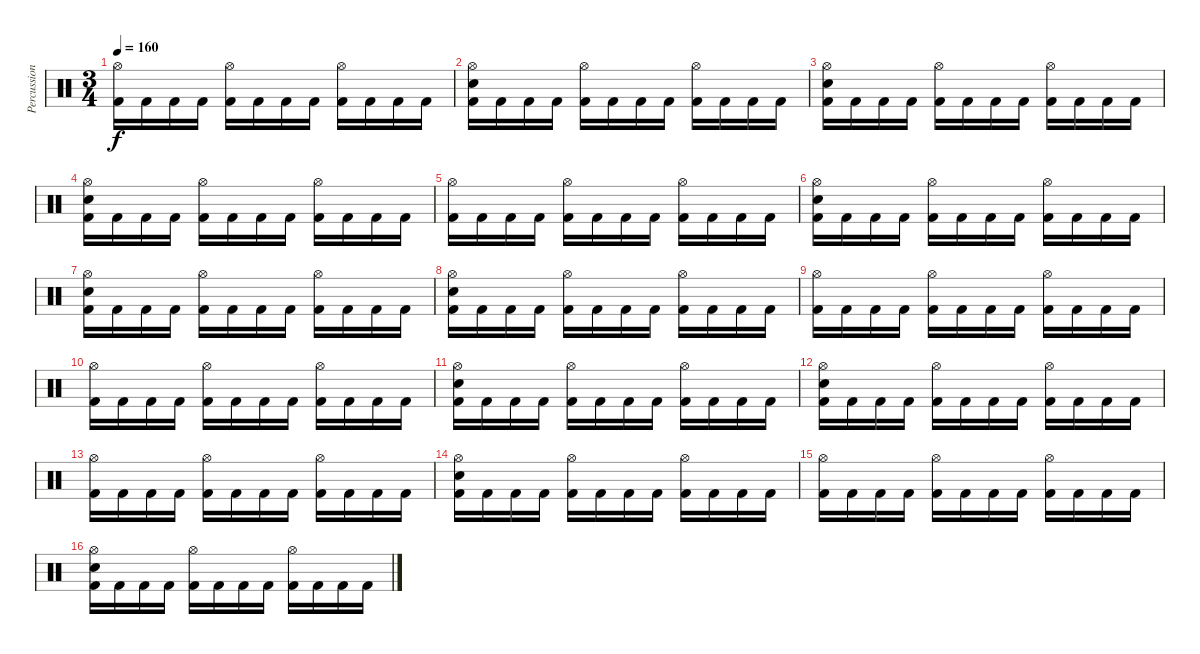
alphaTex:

\track ("Percussion" "Percussion") {instrument percussion}
\staff {score}
\articulation defaults
\ts (3 4)
\tempo 160
\clef neutral
\ks c
("Hi-Hat (open)" "Kick (hit) 2").16{dy f} "Kick (hit) 2".16 "Kick (hit) 2".16 "Kick (hit) 2".16 ("Hi-Hat (open)" "Kick (hit) 2").16 "Kick (hit) 2".16 "Kick (hit) 2".16 "Kick (hit) 2".16 ("Hi-Hat (open)" "Kick (hit) 2").16 "Kick (hit) 2".16 "Kick (hit) 2".16 "Kick (hit) 2".16 |
("Hi-Hat (open)" "Electric Snare (hit)" "Kick (hit) 2").16 "Kick (hit) 2".16 "Kick (hit) 2".16 "Kick (hit) 2".16 ("Hi-Hat (open)" "Kick (hit) 2").16 "Kick (hit) 2".16 "Kick (hit) 2".16 "Kick (hit) 2".16 ("Hi-Hat (open)" "Kick (hit) 2").16 "Kick (hit) 2".16 "Kick (hit) 2".16 "Kick (hit) 2".16 |
("Hi-Hat (open)" "Electric Snare (hit)" "Kick (hit) 2").16 "Kick (hit) 2".16 "Kick (hit) 2".16 "Kick (hit) 2".16 ("Hi-Hat (open)" "Kick (hit) 2").16 "Kick (hit) 2".16 "Kick (hit) 2".16 "Kick (hit) 2".16 ("Hi-Hat (open)" "Kick (hit) 2").16 "Kick (hit) 2".16 "Kick (hit) 2".16 "Kick (hit) 2".16 |
("Hi-Hat (open)" "Electric Snare (hit)" "Kick (hit) 2").16 "Kick (hit) 2".16 "Kick (hit) 2".16 "Kick (hit) 2".16 ("Hi-Hat (open)" "Kick (hit) 2").16 "Kick (hit) 2".16 "Kick (hit) 2".16 "Kick (hit) 2".16 ("Hi-Hat (open)" "Kick (hit) 2").16 "Kick (hit) 2".16 "Kick (hit) 2".16 "Kick (hit) 2".16 |
("Hi-Hat (open)" "Kick (hit) 2").16 "Kick (hit) 2".16 "Kick (hit) 2".16 "Kick (hit) 2".16 ("Hi-Hat (open)" "Kick (hit) 2").16 "Kick (hit) 2".16 "Kick (hit) 2".16 "Kick (hit) 2".16 ("Hi-Hat (open)" "Kick (hit) 2").16 "Kick (hit) 2".16 "Kick (hit) 2".16 "Kick (hit) 2".16 |
("Hi-Hat (open)" "Electric Snare (hit)" "Kick (hit) 2").16 "Kick (hit) 2".16 "Kick (hit) 2".16 "Kick (hit) 2".16 ("Hi-Hat (open)" "Kick (hit) 2").16 "Kick (hit) 2".16 "Kick (hit) 2".16 "Kick (hit) 2".16 ("Hi-Hat (open)" "Kick (hit) 2").16 "Kick (hit) 2".16 "Kick (hit) 2".16 "Kick (hit) 2".16 |
("Hi-Hat (open)" "Electric Snare (hit)" "Kick (hit) 2").16 "Kick (hit) 2".16 "Kick (hit) 2".16 "Kick (hit) 2".16 ("Hi-Hat (open)" "Kick (hit) 2").16 "Kick (hit) 2".16 "Kick (hit) 2".16 "Kick (hit) 2".16 ("Hi-Hat (open)" "Kick (hit) 2").16 "Kick (hit) 2".16 "Kick (hit) 2".16 "Kick (hit) 2".16 |
("Hi-Hat (open)" "Electric Snare (hit)" "Kick (hit) 2").16 "Kick (hit) 2".16 "Kick (hit) 2".16 "Kick (hit) 2".16 ("Hi-Hat (open)" "Kick (hit) 2").16 "Kick (hit) 2".16 "Kick (hit) 2".16 "Kick (hit) 2".16 ("Hi-Hat (open)" "Kick (hit) 2").16 "Kick (hit) 2".16 "Kick (hit) 2".16 "Kick (hit) 2".16 |
("Hi-Hat (open)" "Kick (hit) 2").16 "Kick (hit) 2".16 "Kick (hit) 2".16 "Kick (hit) 2".16 ("Hi-Hat (open)" "Kick (hit) 2").16 "Kick (hit) 2".16 "Kick (hit) 2".16 "Kick (hit) 2".16 ("Hi-Hat (open)" "Kick (hit) 2").16 "Kick (hit) 2".16 "Kick (hit) 2".16 "Kick (hit) 2".16 |
("Hi-Hat (open)" "Kick (hit) 2").16 "Kick (hit) 2".16 "Kick (hit) 2".16 "Kick (hit) 2".16 ("Hi-Hat (open)" "Kick (hit) 2").16 "Kick (hit) 2".16 "Kick (hit) 2".16 "Kick (hit) 2".16 ("Hi-Hat (open)" "Kick (hit) 2").16 "Kick (hit) 2".16 "Kick (hit) 2".16 "Kick (hit) 2".16 |
("Hi-Hat (open)" "Electric Snare (hit)" "Kick (hit) 2").16 "Kick (hit) 2".16 "Kick (hit) 2".16 "Kick (hit) 2".16 ("Hi-Hat (open)" "Kick (hit) 2").16 "Kick (hit) 2".16 "Kick (hit) 2".16 "Kick (hit) 2".16 ("Hi-Hat (open)" "Kick (hit) 2").16 "Kick (hit) 2".16 "Kick (hit) 2".16 "Kick (hit) 2".16 |
("Hi-Hat (open)" "Electric Snare (hit)" "Kick (hit) 2").16 "Kick (hit) 2".16 "Kick (hit) 2".16 "Kick (hit) 2".16 ("Hi-Hat (open)" "Kick (hit) 2").16 "Kick (hit) 2".16 "Kick (hit) 2".16 "Kick (hit) 2".16 ("Hi-Hat (open)" "Kick (hit) 2").16 "Kick (hit) 2".16 "Kick (hit) 2".16 "Kick (hit) 2".16 |
("Hi-Hat (open)" "Kick (hit) 2").16 "Kick (hit) 2".16 "Kick (hit) 2".16 "Kick (hit) 2".16 ("Hi-Hat (open)" "Kick (hit) 2").16 "Kick (hit) 2".16 "Kick (hit) 2".16 "Kick (hit) 2".16 ("Hi-Hat (open)" "Kick (hit) 2").16 "Kick (hit) 2".16 "Kick (hit) 2".16 "Kick (hit) 2".16 |
("Hi-Hat (open)" "Electric Snare (hit)" "Kick (hit) 2").16 "Kick (hit) 2".16 "Kick (hit) 2".16 "Kick (hit) 2".16 ("Hi-Hat (open)" "Kick (hit) 2").16 "Kick (hit) 2".16 "Kick (hit) 2".16 "Kick (hit) 2".16 ("Hi-Hat (open)" "Kick (hit) 2").16 "Kick (hit) 2".16 "Kick (hit) 2".16 "Kick (hit) 2".16 |
("Hi-Hat (open)" "Kick (hit) 2").16 "Kick (hit) 2".16 "Kick (hit) 2".16 "Kick (hit) 2".16 ("Hi-Hat (open)" "Kick (hit) 2").16 "Kick (hit) 2".16 "Kick (hit) 2".16 "Kick (hit) 2".16 ("Hi-Hat (open)" "Kick (hit) 2").16 "Kick (hit) 2".16 "Kick (hit) 2".16 "Kick (hit) 2".16 |
("Hi-Hat (open)" "Electric Snare (hit)" "Kick (hit) 2").16 "Kick (hit) 2".16 "Kick (hit) 2".16 "Kick (hit) 2".16 ("Hi-Hat (open)" "Kick (hit) 2").16 "Kick (hit) 2".16 "Kick (hit) 2".16 "Kick (hit) 2".16 ("Hi-Hat (open)" "Kick (hit) 2").16 "Kick (hit) 2".16 "Kick (hit) 2".16 "Kick (hit) 2".16
